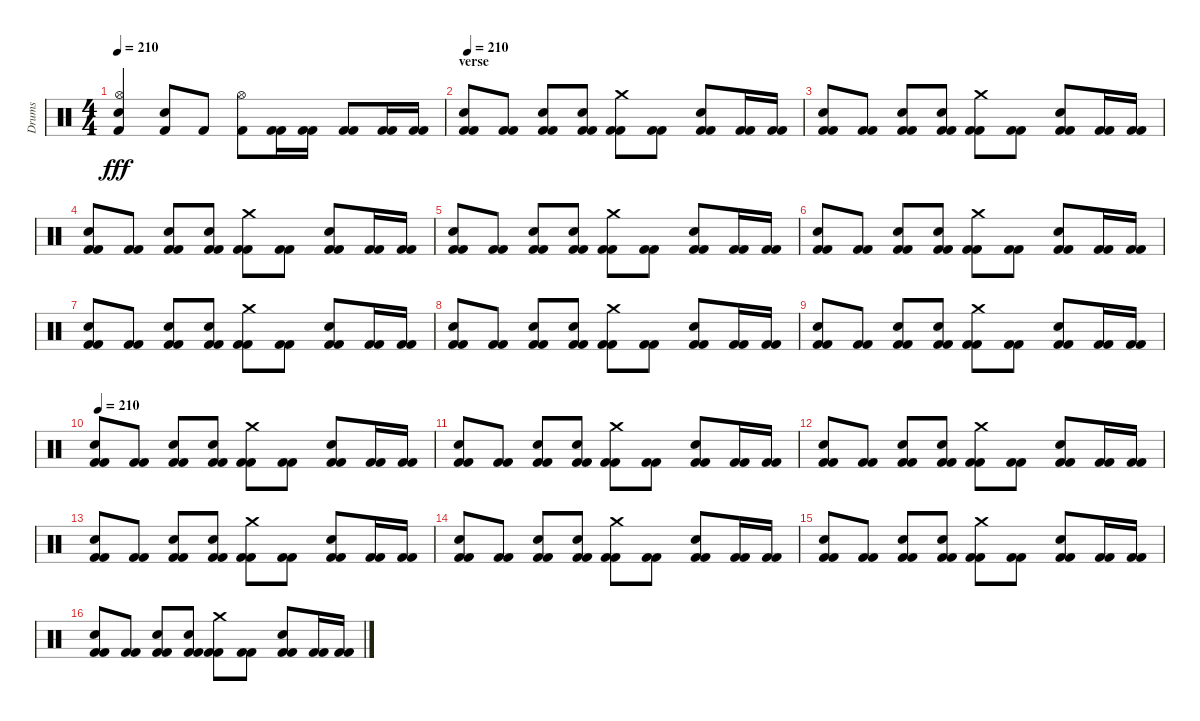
\track ("Drums" "Drums") {instrument percussion}
\staff {score}
\articulation defaults
\ts (4 4)
\tempo 210
\clef neutral
\ks c
("Electric Snare (hit)" "Hi-Hat (open)" "Kick (hit) 2").4{dy fff} ("Electric Snare (hit)" "Kick (hit) 2").8 "Kick (hit) 2".8 ("Hi-Hat (open)" "Kick (hit) 2").8 ("Kick (hit) 2" "Kick (hit) 2").16 ("Kick (hit) 2" "Kick (hit) 2").16 ("Kick (hit) 2" "Kick (hit) 2").8 ("Kick (hit) 2" "Kick (hit) 2").16 ("Kick (hit) 2" "Kick (hit) 2").16 |
\section ("" "verse")
\tempo 210
("Electric Snare (hit)" "Kick (hit) 2" "Kick (hit) 2").8 ("Kick (hit) 2" "Kick (hit) 2").8 ("Electric Snare (hit)" "Kick (hit) 2" "Kick (hit) 2").8 ("Electric Snare (hit)" "Kick (hit) 2" "Kick (hit) 2").8 ("Crash medium (hit)" "Kick (hit) 2" "Kick (hit) 2").8 ("Kick (hit) 2" "Kick (hit) 2").8 ("Electric Snare (hit)" "Kick (hit) 2" "Kick (hit) 2").8 ("Kick (hit) 2" "Kick (hit) 2").16 ("Kick (hit) 2" "Kick (hit) 2").16 |
("Electric Snare (hit)" "Kick (hit) 2" "Kick (hit) 2").8 ("Kick (hit) 2" "Kick (hit) 2").8 ("Electric Snare (hit)" "Kick (hit) 2" "Kick (hit) 2").8 ("Electric Snare (hit)" "Kick (hit) 2" "Kick (hit) 2").8 ("Crash medium (hit)" "Kick (hit) 2" "Kick (hit) 2").8 ("Kick (hit) 2" "Kick (hit) 2").8 ("Electric Snare (hit)" "Kick (hit) 2" "Kick (hit) 2").8 ("Kick (hit) 2" "Kick (hit) 2").16 ("Kick (hit) 2" "Kick (hit) 2").16 |
("Electric Snare (hit)" "Kick (hit) 2" "Kick (hit) 2").8 ("Kick (hit) 2" "Kick (hit) 2").8 ("Electric Snare (hit)" "Kick (hit) 2" "Kick (hit) 2").8 ("Electric Snare (hit)" "Kick (hit) 2" "Kick (hit) 2").8 ("Crash medium (hit)" "Kick (hit) 2" "Kick (hit) 2").8 ("Kick (hit) 2" "Kick (hit) 2").8 ("Electric Snare (hit)" "Kick (hit) 2" "Kick (hit) 2").8 ("Kick (hit) 2" "Kick (hit) 2").16 ("Kick (hit) 2" "Kick (hit) 2").16 |
("Electric Snare (hit)" "Kick (hit) 2" "Kick (hit) 2").8 ("Kick (hit) 2" "Kick (hit) 2").8 ("Electric Snare (hit)" "Kick (hit) 2" "Kick (hit) 2").8 ("Electric Snare (hit)" "Kick (hit) 2" "Kick (hit) 2").8 ("Crash medium (hit)" "Kick (hit) 2" "Kick (hit) 2").8 ("Kick (hit) 2" "Kick (hit) 2").8 ("Electric Snare (hit)" "Kick (hit) 2" "Kick (hit) 2").8 ("Kick (hit) 2" "Kick (hit) 2").16 ("Kick (hit) 2" "Kick (hit) 2").16 |
("Electric Snare (hit)" "Kick (hit) 2" "Kick (hit) 2").8 ("Kick (hit) 2" "Kick (hit) 2").8 ("Electric Snare (hit)" "Kick (hit) 2" "Kick (hit) 2").8 ("Electric Snare (hit)" "Kick (hit) 2" "Kick (hit) 2").8 ("Crash medium (hit)" "Kick (hit) 2" "Kick (hit) 2").8 ("Kick (hit) 2" "Kick (hit) 2").8 ("Electric Snare (hit)" "Kick (hit) 2" "Kick (hit) 2").8 ("Kick (hit) 2" "Kick (hit) 2").16 ("Kick (hit) 2" "Kick (hit) 2").16 |
("Electric Snare (hit)" "Kick (hit) 2" "Kick (hit) 2").8 ("Kick (hit) 2" "Kick (hit) 2").8 ("Electric Snare (hit)" "Kick (hit) 2" "Kick (hit) 2").8 ("Electric Snare (hit)" "Kick (hit) 2" "Kick (hit) 2").8 ("Crash medium (hit)" "Kick (hit) 2" "Kick (hit) 2").8 ("Kick (hit) 2" "Kick (hit) 2").8 ("Electric Snare (hit)" "Kick (hit) 2" "Kick (hit) 2").8 ("Kick (hit) 2" "Kick (hit) 2").16 ("Kick (hit) 2" "Kick (hit) 2").16 |
("Electric Snare (hit)" "Kick (hit) 2" "Kick (hit) 2").8 ("Kick (hit) 2" "Kick (hit) 2").8 ("Electric Snare (hit)" "Kick (hit) 2" "Kick (hit) 2").8 ("Electric Snare (hit)" "Kick (hit) 2" "Kick (hit) 2").8 ("Crash medium (hit)" "Kick (hit) 2" "Kick (hit) 2").8 ("Kick (hit) 2" "Kick (hit) 2").8 ("Electric Snare (hit)" "Kick (hit) 2" "Kick (hit) 2").8 ("Kick (hit) 2" "Kick (hit) 2").16 ("Kick (hit) 2" "Kick (hit) 2").16 |
("Electric Snare (hit)" "Kick (hit) 2" "Kick (hit) 2").8 ("Kick (hit) 2" "Kick (hit) 2").8 ("Electric Snare (hit)" "Kick (hit) 2" "Kick (hit) 2").8 ("Electric Snare (hit)" "Kick (hit) 2" "Kick (hit) 2").8 ("Crash medium (hit)" "Kick (hit) 2" "Kick (hit) 2").8 ("Kick (hit) 2" "Kick (hit) 2").8 ("Electric Snare (hit)" "Kick (hit) 2" "Kick (hit) 2").8 ("Kick (hit) 2" "Kick (hit) 2").16 ("Kick (hit) 2" "Kick (hit) 2").16 |
\tempo 210
("Electric Snare (hit)" "Kick (hit) 2" "Kick (hit) 2").8 ("Kick (hit) 2" "Kick (hit) 2").8 ("Electric Snare (hit)" "Kick (hit) 2" "Kick (hit) 2").8 ("Electric Snare (hit)" "Kick (hit) 2" "Kick (hit) 2").8 ("Crash medium (hit)" "Kick (hit) 2" "Kick (hit) 2").8 ("Kick (hit) 2" "Kick (hit) 2").8 ("Electric Snare (hit)" "Kick (hit) 2" "Kick (hit) 2").8 ("Kick (hit) 2" "Kick (hit) 2").16 ("Kick (hit) 2" "Kick (hit) 2").16 |
("Electric Snare (hit)" "Kick (hit) 2" "Kick (hit) 2").8 ("Kick (hit) 2" "Kick (hit) 2").8 ("Electric Snare (hit)" "Kick (hit) 2" "Kick (hit) 2").8 ("Electric Snare (hit)" "Kick (hit) 2" "Kick (hit) 2").8 ("Crash medium (hit)" "Kick (hit) 2" "Kick (hit) 2").8 ("Kick (hit) 2" "Kick (hit) 2").8 ("Electric Snare (hit)" "Kick (hit) 2" "Kick (hit) 2").8 ("Kick (hit) 2" "Kick (hit) 2").16 ("Kick (hit) 2" "Kick (hit) 2").16 |
("Electric Snare (hit)" "Kick (hit) 2" "Kick (hit) 2").8 ("Kick (hit) 2" "Kick (hit) 2").8 ("Electric Snare (hit)" "Kick (hit) 2" "Kick (hit) 2").8 ("Electric Snare (hit)" "Kick (hit) 2" "Kick (hit) 2").8 ("Crash medium (hit)" "Kick (hit) 2" "Kick (hit) 2").8 ("Kick (hit) 2" "Kick (hit) 2").8 ("Electric Snare (hit)" "Kick (hit) 2" "Kick (hit) 2").8 ("Kick (hit) 2" "Kick (hit) 2").16 ("Kick (hit) 2" "Kick (hit) 2").16 |
("Electric Snare (hit)" "Kick (hit) 2" "Kick (hit) 2").8 ("Kick (hit) 2" "Kick (hit) 2").8 ("Electric Snare (hit)" "Kick (hit) 2" "Kick (hit) 2").8 ("Electric Snare (hit)" "Kick (hit) 2" "Kick (hit) 2").8 ("Crash medium (hit)" "Kick (hit) 2" "Kick (hit) 2").8 ("Kick (hit) 2" "Kick (hit) 2").8 ("Electric Snare (hit)" "Kick (hit) 2" "Kick (hit) 2").8 ("Kick (hit) 2" "Kick (hit) 2").16 ("Kick (hit) 2" "Kick (hit) 2").16 |
("Electric Snare (hit)" "Kick (hit) 2" "Kick (hit) 2").8 ("Kick (hit) 2" "Kick (hit) 2").8 ("Electric Snare (hit)" "Kick (hit) 2" "Kick (hit) 2").8 ("Electric Snare (hit)" "Kick (hit) 2" "Kick (hit) 2").8 ("Crash medium (hit)" "Kick (hit) 2" "Kick (hit) 2").8 ("Kick (hit) 2" "Kick (hit) 2").8 ("Electric Snare (hit)" "Kick (hit) 2" "Kick (hit) 2").8 ("Kick (hit) 2" "Kick (hit) 2").16 ("Kick (hit) 2" "Kick (hit) 2").16 |
("Electric Snare (hit)" "Kick (hit) 2" "Kick (hit) 2").8 ("Kick (hit) 2" "Kick (hit) 2").8 ("Electric Snare (hit)" "Kick (hit) 2" "Kick (hit) 2").8 ("Electric Snare (hit)" "Kick (hit) 2" "Kick (hit) 2").8 ("Crash medium (hit)" "Kick (hit) 2" "Kick (hit) 2").8 ("Kick (hit) 2" "Kick (hit) 2").8 ("Electric Snare (hit)" "Kick (hit) 2" "Kick (hit) 2").8 ("Kick (hit) 2" "Kick (hit) 2").16 ("Kick (hit) 2" "Kick (hit) 2").16 |
("Electric Snare (hit)" "Kick (hit) 2" "Kick (hit) 2").8 ("Kick (hit) 2" "Kick (hit) 2").8 ("Electric Snare (hit)" "Kick (hit) 2" "Kick (hit) 2").8 ("Electric Snare (hit)" "Kick (hit) 2" "Kick (hit) 2").8 ("Crash medium (hit)" "Kick (hit) 2" "Kick (hit) 2").8 ("Kick (hit) 2" "Kick (hit) 2").8 ("Electric Snare (hit)" "Kick (hit) 2" "Kick (hit) 2").8 ("Kick (hit) 2" "Kick (hit) 2").16 ("Kick (hit) 2" "Kick (hit) 2").16
